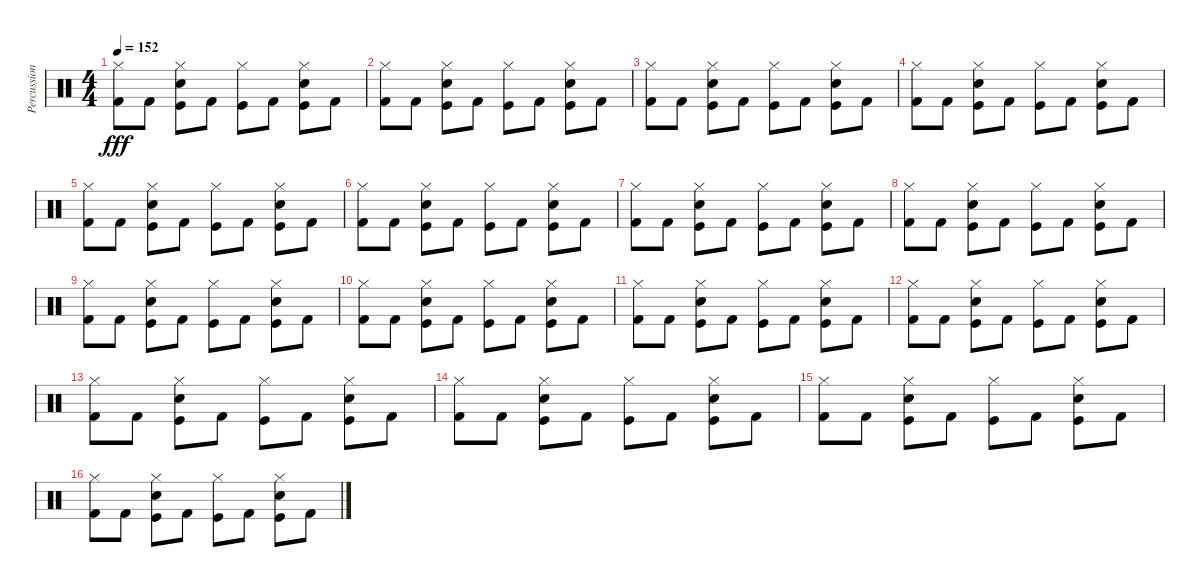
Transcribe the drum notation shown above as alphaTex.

\track ("Percussions" "Percussion") {instrument percussion}
\staff {score}
\articulation defaults
\ts (4 4)
\tempo 152
\clef neutral
\ks c
("Hi-Hat (closed)" "Kick (hit) 2").8{dy fff} "Kick (hit) 2".8 ("Hi-Hat (closed)" "Snare (hit) 2" "Kick (hit)").8 "Kick (hit) 2".8 ("Hi-Hat (closed)" "Kick (hit)").8 "Kick (hit) 2".8 ("Hi-Hat (closed)" "Snare (hit) 2" "Kick (hit)").8 "Kick (hit) 2".8 |
("Hi-Hat (closed)" "Kick (hit) 2").8 "Kick (hit) 2".8 ("Hi-Hat (closed)" "Snare (hit) 2" "Kick (hit)").8 "Kick (hit) 2".8 ("Hi-Hat (closed)" "Kick (hit)").8 "Kick (hit) 2".8 ("Hi-Hat (closed)" "Snare (hit) 2" "Kick (hit)").8 "Kick (hit) 2".8 |
("Hi-Hat (closed)" "Kick (hit) 2").8 "Kick (hit) 2".8 ("Hi-Hat (closed)" "Snare (hit) 2" "Kick (hit)").8 "Kick (hit) 2".8 ("Hi-Hat (closed)" "Kick (hit)").8 "Kick (hit) 2".8 ("Hi-Hat (closed)" "Snare (hit) 2" "Kick (hit)").8 "Kick (hit) 2".8 |
("Hi-Hat (closed)" "Kick (hit) 2").8 "Kick (hit) 2".8 ("Hi-Hat (closed)" "Snare (hit) 2" "Kick (hit)").8 "Kick (hit) 2".8 ("Hi-Hat (closed)" "Kick (hit)").8 "Kick (hit) 2".8 ("Hi-Hat (closed)" "Snare (hit) 2" "Kick (hit)").8 "Kick (hit) 2".8 |
("Hi-Hat (closed)" "Kick (hit) 2").8 "Kick (hit) 2".8 ("Hi-Hat (closed)" "Snare (hit) 2" "Kick (hit)").8 "Kick (hit) 2".8 ("Hi-Hat (closed)" "Kick (hit)").8 "Kick (hit) 2".8 ("Hi-Hat (closed)" "Snare (hit) 2" "Kick (hit)").8 "Kick (hit) 2".8 |
("Hi-Hat (closed)" "Kick (hit) 2").8 "Kick (hit) 2".8 ("Hi-Hat (closed)" "Snare (hit) 2" "Kick (hit)").8 "Kick (hit) 2".8 ("Hi-Hat (closed)" "Kick (hit)").8 "Kick (hit) 2".8 ("Hi-Hat (closed)" "Snare (hit) 2" "Kick (hit)").8 "Kick (hit) 2".8 |
("Hi-Hat (closed)" "Kick (hit) 2").8 "Kick (hit) 2".8 ("Hi-Hat (closed)" "Snare (hit) 2" "Kick (hit)").8 "Kick (hit) 2".8 ("Hi-Hat (closed)" "Kick (hit)").8 "Kick (hit) 2".8 ("Hi-Hat (closed)" "Snare (hit) 2" "Kick (hit)").8 "Kick (hit) 2".8 |
("Hi-Hat (closed)" "Kick (hit) 2").8 "Kick (hit) 2".8 ("Hi-Hat (closed)" "Snare (hit) 2" "Kick (hit)").8 "Kick (hit) 2".8 ("Hi-Hat (closed)" "Kick (hit)").8 "Kick (hit) 2".8 ("Hi-Hat (closed)" "Snare (hit) 2" "Kick (hit)").8 "Kick (hit) 2".8 |
("Hi-Hat (closed)" "Kick (hit) 2").8 "Kick (hit) 2".8 ("Hi-Hat (closed)" "Snare (hit) 2" "Kick (hit)").8 "Kick (hit) 2".8 ("Hi-Hat (closed)" "Kick (hit)").8 "Kick (hit) 2".8 ("Hi-Hat (closed)" "Snare (hit) 2" "Kick (hit)").8 "Kick (hit) 2".8 |
("Hi-Hat (closed)" "Kick (hit) 2").8 "Kick (hit) 2".8 ("Hi-Hat (closed)" "Snare (hit) 2" "Kick (hit)").8 "Kick (hit) 2".8 ("Hi-Hat (closed)" "Kick (hit)").8 "Kick (hit) 2".8 ("Hi-Hat (closed)" "Snare (hit) 2" "Kick (hit)").8 "Kick (hit) 2".8 |
("Hi-Hat (closed)" "Kick (hit) 2").8 "Kick (hit) 2".8 ("Hi-Hat (closed)" "Snare (hit) 2" "Kick (hit)").8 "Kick (hit) 2".8 ("Hi-Hat (closed)" "Kick (hit)").8 "Kick (hit) 2".8 ("Hi-Hat (closed)" "Snare (hit) 2" "Kick (hit)").8 "Kick (hit) 2".8 |
("Hi-Hat (closed)" "Kick (hit) 2").8 "Kick (hit) 2".8 ("Hi-Hat (closed)" "Snare (hit) 2" "Kick (hit)").8 "Kick (hit) 2".8 ("Hi-Hat (closed)" "Kick (hit)").8 "Kick (hit) 2".8 ("Hi-Hat (closed)" "Snare (hit) 2" "Kick (hit)").8 "Kick (hit) 2".8 |
("Hi-Hat (closed)" "Kick (hit) 2").8 "Kick (hit) 2".8 ("Hi-Hat (closed)" "Snare (hit) 2" "Kick (hit)").8 "Kick (hit) 2".8 ("Hi-Hat (closed)" "Kick (hit)").8 "Kick (hit) 2".8 ("Hi-Hat (closed)" "Snare (hit) 2" "Kick (hit)").8 "Kick (hit) 2".8 |
("Hi-Hat (closed)" "Kick (hit) 2").8 "Kick (hit) 2".8 ("Hi-Hat (closed)" "Snare (hit) 2" "Kick (hit)").8 "Kick (hit) 2".8 ("Hi-Hat (closed)" "Kick (hit)").8 "Kick (hit) 2".8 ("Hi-Hat (closed)" "Snare (hit) 2" "Kick (hit)").8 "Kick (hit) 2".8 |
("Hi-Hat (closed)" "Kick (hit) 2").8 "Kick (hit) 2".8 ("Hi-Hat (closed)" "Snare (hit) 2" "Kick (hit)").8 "Kick (hit) 2".8 ("Hi-Hat (closed)" "Kick (hit)").8 "Kick (hit) 2".8 ("Hi-Hat (closed)" "Snare (hit) 2" "Kick (hit)").8 "Kick (hit) 2".8 |
("Hi-Hat (closed)" "Kick (hit) 2").8 "Kick (hit) 2".8 ("Hi-Hat (closed)" "Snare (hit) 2" "Kick (hit)").8 "Kick (hit) 2".8 ("Hi-Hat (closed)" "Kick (hit)").8 "Kick (hit) 2".8 ("Hi-Hat (closed)" "Snare (hit) 2" "Kick (hit)").8 "Kick (hit) 2".8
